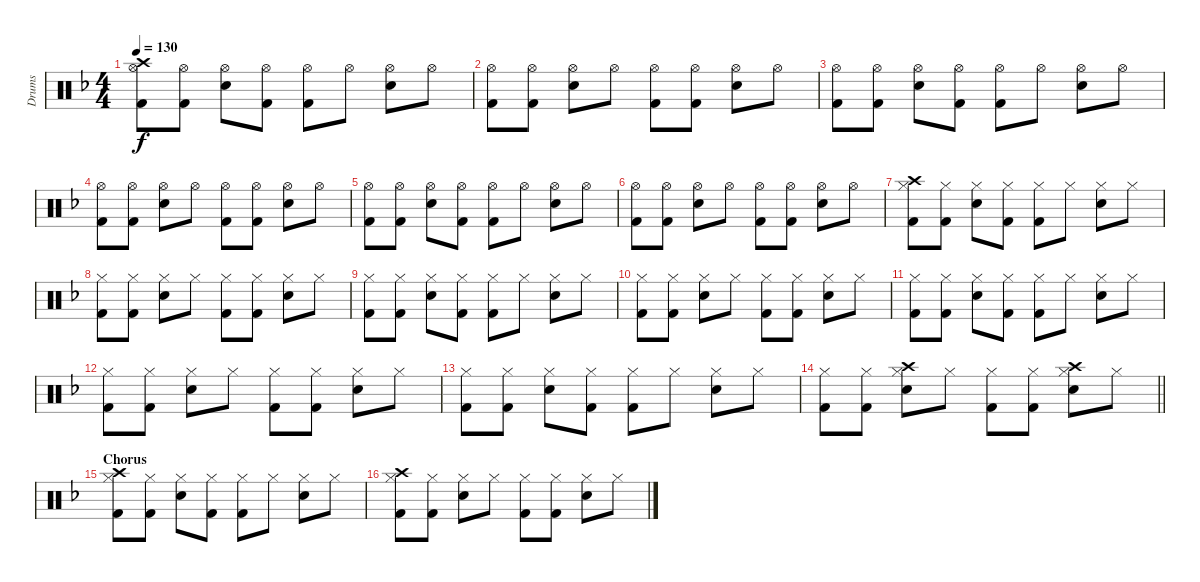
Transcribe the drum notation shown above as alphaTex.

\track ("Drums" "Drums") {instrument percussion}
\staff {score}
\articulation defaults
\ts (4 4)
\tempo 130
\clef neutral
\ks dminor
("Hi-Hat (open)" "Kick (hit) 2" "Crash high (hit)").8{dy f} ("Hi-Hat (open)" "Kick (hit) 2").8 ("Hi-Hat (open)" "Snare (hit) 2").8 ("Hi-Hat (open)" "Kick (hit) 2").8 ("Hi-Hat (open)" "Kick (hit) 2").8 "Hi-Hat (open)".8 ("Hi-Hat (open)" "Snare (hit) 2").8 "Hi-Hat (open)".8 |
("Hi-Hat (open)" "Kick (hit) 2").8 ("Hi-Hat (open)" "Kick (hit) 2").8 ("Hi-Hat (open)" "Snare (hit) 2").8 "Hi-Hat (open)".8 ("Hi-Hat (open)" "Kick (hit) 2").8 ("Hi-Hat (open)" "Kick (hit) 2").8 ("Hi-Hat (open)" "Snare (hit) 2").8 "Hi-Hat (open)".8 |
("Hi-Hat (open)" "Kick (hit) 2").8 ("Hi-Hat (open)" "Kick (hit) 2").8 ("Hi-Hat (open)" "Snare (hit) 2").8 ("Hi-Hat (open)" "Kick (hit) 2").8 ("Hi-Hat (open)" "Kick (hit) 2").8 "Hi-Hat (open)".8 ("Hi-Hat (open)" "Snare (hit) 2").8 "Hi-Hat (open)".8 |
("Hi-Hat (open)" "Kick (hit) 2").8 ("Hi-Hat (open)" "Kick (hit) 2").8 ("Hi-Hat (open)" "Snare (hit) 2").8 "Hi-Hat (open)".8 ("Hi-Hat (open)" "Kick (hit) 2").8 ("Hi-Hat (open)" "Kick (hit) 2").8 ("Hi-Hat (open)" "Snare (hit) 2").8 "Hi-Hat (open)".8 |
("Hi-Hat (open)" "Kick (hit) 2").8 ("Hi-Hat (open)" "Kick (hit) 2").8 ("Hi-Hat (open)" "Snare (hit) 2").8 ("Hi-Hat (open)" "Kick (hit) 2").8 ("Hi-Hat (open)" "Kick (hit) 2").8 "Hi-Hat (open)".8 ("Hi-Hat (open)" "Snare (hit) 2").8 "Hi-Hat (open)".8 |
("Hi-Hat (open)" "Kick (hit) 2").8 ("Hi-Hat (open)" "Kick (hit) 2").8 ("Hi-Hat (open)" "Snare (hit) 2").8 "Hi-Hat (open)".8 ("Hi-Hat (open)" "Kick (hit) 2").8 ("Hi-Hat (open)" "Kick (hit) 2").8 ("Hi-Hat (open)" "Snare (hit) 2").8 "Hi-Hat (open)".8 |
("Hi-Hat (closed)" "Kick (hit) 2" "Crash high (hit)").8 ("Hi-Hat (closed)" "Kick (hit) 2").8 ("Hi-Hat (closed)" "Snare (hit) 2").8 ("Hi-Hat (closed)" "Kick (hit) 2").8 ("Hi-Hat (closed)" "Kick (hit) 2").8 "Hi-Hat (closed)".8 ("Hi-Hat (closed)" "Snare (hit) 2").8 "Hi-Hat (closed)".8 |
("Hi-Hat (closed)" "Kick (hit) 2").8 ("Hi-Hat (closed)" "Kick (hit) 2").8 ("Hi-Hat (closed)" "Snare (hit) 2").8 "Hi-Hat (closed)".8 ("Hi-Hat (closed)" "Kick (hit) 2").8 ("Hi-Hat (closed)" "Kick (hit) 2").8 ("Hi-Hat (closed)" "Snare (hit) 2").8 "Hi-Hat (closed)".8 |
("Hi-Hat (closed)" "Kick (hit) 2").8 ("Hi-Hat (closed)" "Kick (hit) 2").8 ("Hi-Hat (closed)" "Snare (hit) 2").8 ("Hi-Hat (closed)" "Kick (hit) 2").8 ("Hi-Hat (closed)" "Kick (hit) 2").8 "Hi-Hat (closed)".8 ("Hi-Hat (closed)" "Snare (hit) 2").8 "Hi-Hat (closed)".8 |
("Hi-Hat (closed)" "Kick (hit) 2").8 ("Hi-Hat (closed)" "Kick (hit) 2").8 ("Hi-Hat (closed)" "Snare (hit) 2").8 "Hi-Hat (closed)".8 ("Hi-Hat (closed)" "Kick (hit) 2").8 ("Hi-Hat (closed)" "Kick (hit) 2").8 ("Hi-Hat (closed)" "Snare (hit) 2").8 "Hi-Hat (closed)".8 |
("Hi-Hat (closed)" "Kick (hit) 2").8 ("Hi-Hat (closed)" "Kick (hit) 2").8 ("Hi-Hat (closed)" "Snare (hit) 2").8 ("Hi-Hat (closed)" "Kick (hit) 2").8 ("Hi-Hat (closed)" "Kick (hit) 2").8 "Hi-Hat (closed)".8 ("Hi-Hat (closed)" "Snare (hit) 2").8 "Hi-Hat (closed)".8 |
("Hi-Hat (closed)" "Kick (hit) 2").8 ("Hi-Hat (closed)" "Kick (hit) 2").8 ("Hi-Hat (closed)" "Snare (hit) 2").8 "Hi-Hat (closed)".8 ("Hi-Hat (closed)" "Kick (hit) 2").8 ("Hi-Hat (closed)" "Kick (hit) 2").8 ("Hi-Hat (closed)" "Snare (hit) 2").8 "Hi-Hat (closed)".8 |
("Hi-Hat (closed)" "Kick (hit) 2").8 ("Hi-Hat (closed)" "Kick (hit) 2").8 ("Hi-Hat (closed)" "Snare (hit) 2").8 ("Hi-Hat (closed)" "Kick (hit) 2").8 ("Hi-Hat (closed)" "Kick (hit) 2").8 "Hi-Hat (closed)".8 ("Hi-Hat (closed)" "Snare (hit) 2").8 "Hi-Hat (closed)".8 |
\barLineRight lightlight
("Hi-Hat (closed)" "Kick (hit) 2").8 ("Hi-Hat (closed)" "Kick (hit) 2").8 ("Hi-Hat (closed)" "Snare (hit) 2" "Crash high (hit)").8 "Hi-Hat (closed)".8 ("Hi-Hat (closed)" "Kick (hit) 2").8 ("Hi-Hat (closed)" "Kick (hit) 2").8 ("Hi-Hat (closed)" "Snare (hit) 2" "Crash high (hit)").8 "Hi-Hat (closed)".8 |
\section ("" "Chorus")
("Hi-Hat (closed)" "Kick (hit) 2" "Crash high (hit)").8 ("Hi-Hat (closed)" "Kick (hit) 2").8 ("Hi-Hat (closed)" "Snare (hit) 2").8 ("Hi-Hat (closed)" "Kick (hit) 2").8 ("Hi-Hat (closed)" "Kick (hit) 2").8 "Hi-Hat (closed)".8 ("Hi-Hat (closed)" "Snare (hit) 2").8 "Hi-Hat (closed)".8 |
("Hi-Hat (closed)" "Kick (hit) 2" "Crash high (hit)").8 ("Hi-Hat (closed)" "Kick (hit) 2").8 ("Hi-Hat (closed)" "Snare (hit) 2").8 "Hi-Hat (closed)".8 ("Hi-Hat (closed)" "Kick (hit) 2").8 ("Hi-Hat (closed)" "Kick (hit) 2").8 ("Hi-Hat (closed)" "Snare (hit) 2").8 "Hi-Hat (closed)".8
